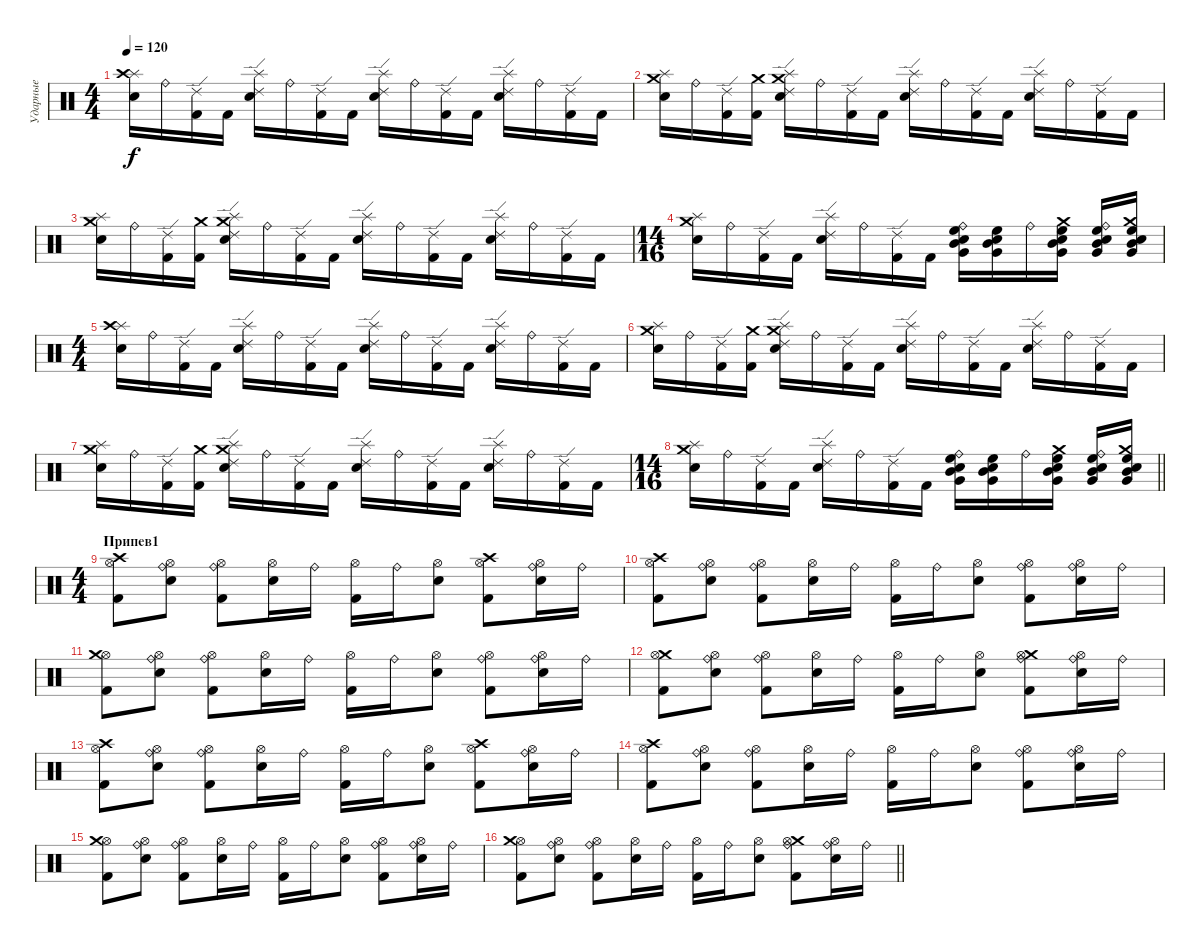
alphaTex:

\track ("Ударные" "Ударные") {instrument percussion}
\staff {score}
\articulation defaults
\ts (4 4)
\tempo 120
\clef neutral
\ks c
("Splash (hit)" "Crash high (hit)" "Electric Snare (hit)").16{dy f} "Ride (bell)".16 ("Ride (edge) 2" "Kick (hit) 2").16 "Kick (hit) 2".16 ("Splash (hit)" "Ride (edge) 2" "Electric Snare (hit)").16 "Ride (bell)".16 ("Ride (edge) 2" "Kick (hit) 2").16 "Kick (hit) 2".16 ("Splash (hit)" "Ride (edge) 2" "Electric Snare (hit)").16 "Ride (bell)".16 ("Ride (edge) 2" "Kick (hit) 2").16 "Kick (hit) 2".16 ("Splash (hit)" "Ride (edge) 2" "Electric Snare (hit)").16 "Ride (bell)".16 ("Ride (edge) 2" "Kick (hit) 2").16 "Kick (hit) 2".16 |
("Crash medium (hit)" "Splash (hit)" "Electric Snare (hit)").16 "Ride (bell)".16 ("Ride (edge) 2" "Kick (hit) 2").16 ("Crash medium (hit)" "Kick (hit) 2").16 ("Crash medium (hit)" "Splash (hit)" "Ride (edge) 2" "Electric Snare (hit)").16 "Ride (bell)".16 ("Ride (edge) 2" "Kick (hit) 2").16 "Kick (hit) 2".16 ("Splash (hit)" "Ride (edge) 2" "Electric Snare (hit)").16 "Ride (bell)".16 ("Ride (edge) 2" "Kick (hit) 2").16 "Kick (hit) 2".16 ("Splash (hit)" "Ride (edge) 2" "Electric Snare (hit)").16 "Ride (bell)".16 ("Ride (edge) 2" "Kick (hit) 2").16 "Kick (hit) 2".16 |
("Crash medium (hit)" "Splash (hit)" "Electric Snare (hit)").16 "Ride (bell)".16 ("Ride (edge) 2" "Kick (hit) 2").16 ("Crash medium (hit)" "Kick (hit) 2").16 ("Crash medium (hit)" "Splash (hit)" "Ride (edge) 2" "Electric Snare (hit)").16 "Ride (bell)".16 ("Ride (edge) 2" "Kick (hit) 2").16 "Kick (hit) 2".16 ("Splash (hit)" "Ride (edge) 2" "Electric Snare (hit)").16 "Ride (bell)".16 ("Ride (edge) 2" "Kick (hit) 2").16 "Kick (hit) 2".16 ("Splash (hit)" "Ride (edge) 2" "Electric Snare (hit)").16 "Ride (bell)".16 ("Ride (edge) 2" "Kick (hit) 2").16 "Kick (hit) 2".16 |
\ts (14 16)
("Splash (hit)" "Crash medium (hit)" "Electric Snare (hit)").16 "Ride (bell)".16 ("Ride (edge) 2" "Kick (hit) 2").16 "Kick (hit) 2".16 ("Splash (hit)" "Ride (edge) 2" "Electric Snare (hit)").16 "Ride (bell)".16 ("Ride (edge) 2" "Kick (hit) 2").16 "Kick (hit) 2".16 ("Ride (bell)" "High Floor Tom (hit)" "Mid Tom (hit)" "Very Low Tom (hit)" "Electric Snare (hit)").16 ("Electric Snare (hit)" "Very Low Tom (hit)" "Mid Tom (hit)" "High Floor Tom (hit)").16 "Ride (bell)".16 ("Crash medium (hit)" "Electric Snare (hit)" "Very Low Tom (hit)" "Mid Tom (hit)" "High Floor Tom (hit)").16 ("Ride (bell)" "Electric Snare (hit)" "Very Low Tom (hit)" "Mid Tom (hit)" "High Floor Tom (hit)").16 ("Crash medium (hit)" "Electric Snare (hit)" "Very Low Tom (hit)" "Mid Tom (hit)" "High Floor Tom (hit)").16 |
\ts (4 4)
("Splash (hit)" "Crash high (hit)" "Electric Snare (hit)").16 "Ride (bell)".16 ("Ride (edge) 2" "Kick (hit) 2").16 "Kick (hit) 2".16 ("Splash (hit)" "Ride (edge) 2" "Electric Snare (hit)").16 "Ride (bell)".16 ("Ride (edge) 2" "Kick (hit) 2").16 "Kick (hit) 2".16 ("Splash (hit)" "Ride (edge) 2" "Electric Snare (hit)").16 "Ride (bell)".16 ("Ride (edge) 2" "Kick (hit) 2").16 "Kick (hit) 2".16 ("Splash (hit)" "Ride (edge) 2" "Electric Snare (hit)").16 "Ride (bell)".16 ("Ride (edge) 2" "Kick (hit) 2").16 "Kick (hit) 2".16 |
("Crash medium (hit)" "Splash (hit)" "Electric Snare (hit)").16 "Ride (bell)".16 ("Ride (edge) 2" "Kick (hit) 2").16 ("Crash medium (hit)" "Kick (hit) 2").16 ("Crash medium (hit)" "Splash (hit)" "Ride (edge) 2" "Electric Snare (hit)").16 "Ride (bell)".16 ("Ride (edge) 2" "Kick (hit) 2").16 "Kick (hit) 2".16 ("Splash (hit)" "Ride (edge) 2" "Electric Snare (hit)").16 "Ride (bell)".16 ("Ride (edge) 2" "Kick (hit) 2").16 "Kick (hit) 2".16 ("Splash (hit)" "Ride (edge) 2" "Electric Snare (hit)").16 "Ride (bell)".16 ("Ride (edge) 2" "Kick (hit) 2").16 "Kick (hit) 2".16 |
("Crash medium (hit)" "Splash (hit)" "Electric Snare (hit)").16 "Ride (bell)".16 ("Ride (edge) 2" "Kick (hit) 2").16 ("Crash medium (hit)" "Kick (hit) 2").16 ("Crash medium (hit)" "Splash (hit)" "Ride (edge) 2" "Electric Snare (hit)").16 "Ride (bell)".16 ("Ride (edge) 2" "Kick (hit) 2").16 "Kick (hit) 2".16 ("Splash (hit)" "Ride (edge) 2" "Electric Snare (hit)").16 "Ride (bell)".16 ("Ride (edge) 2" "Kick (hit) 2").16 "Kick (hit) 2".16 ("Splash (hit)" "Ride (edge) 2" "Electric Snare (hit)").16 "Ride (bell)".16 ("Ride (edge) 2" "Kick (hit) 2").16 "Kick (hit) 2".16 |
\ts (14 16)
\barLineRight lightlight
("Splash (hit)" "Crash medium (hit)" "Electric Snare (hit)").16 "Ride (bell)".16 ("Ride (edge) 2" "Kick (hit) 2").16 "Kick (hit) 2".16 ("Splash (hit)" "Ride (edge) 2" "Electric Snare (hit)").16 "Ride (bell)".16 ("Ride (edge) 2" "Kick (hit) 2").16 "Kick (hit) 2".16 ("Ride (bell)" "High Floor Tom (hit)" "Mid Tom (hit)" "Very Low Tom (hit)" "Electric Snare (hit)").16 ("Electric Snare (hit)" "Very Low Tom (hit)" "Mid Tom (hit)" "High Floor Tom (hit)").16 "Ride (bell)".16 ("Crash medium (hit)" "Electric Snare (hit)" "Very Low Tom (hit)" "Mid Tom (hit)" "High Floor Tom (hit)").16 ("Ride (bell)" "Electric Snare (hit)" "Very Low Tom (hit)" "Mid Tom (hit)" "High Floor Tom (hit)").16 ("Crash medium (hit)" "Electric Snare (hit)" "Very Low Tom (hit)" "Mid Tom (hit)" "High Floor Tom (hit)").16 |
\ts (4 4)
\section ("" "Припев1")
("Crash high (hit)" "Hi-Hat (open)" "Kick (hit) 2").8 ("Ride (bell)" "Hi-Hat (open)" "Electric Snare (hit)").8 ("Ride (bell)" "Hi-Hat (open)" "Kick (hit) 2").8 ("Hi-Hat (open)" "Electric Snare (hit)").16 "Ride (bell)".16 ("Kick (hit) 2" "Hi-Hat (open)").16 "Ride (bell)".16 ("Electric Snare (hit)" "Hi-Hat (open)").8 ("Kick (hit) 2" "Crash high (hit)" "Hi-Hat (open)").8 ("Electric Snare (hit)" "Ride (bell)" "Hi-Hat (open)").16 "Ride (bell)".16 |
("Crash high (hit)" "Kick (hit) 2" "Hi-Hat (open)").8 ("Ride (bell)" "Electric Snare (hit)" "Hi-Hat (open)").8 ("Ride (bell)" "Kick (hit) 2" "Hi-Hat (open)").8 ("Electric Snare (hit)" "Hi-Hat (open)").16 "Ride (bell)".16 ("Kick (hit) 2" "Hi-Hat (open)").16 "Ride (bell)".16 ("Electric Snare (hit)" "Hi-Hat (open)").8 ("Kick (hit) 2" "Ride (bell)" "Hi-Hat (open)").8 ("Electric Snare (hit)" "Hi-Hat (open)" "Ride (bell)").16 "Ride (bell)".16 |
("Hi-Hat (open)" "Crash medium (hit)" "Kick (hit) 2").8 ("Hi-Hat (open)" "Electric Snare (hit)" "Ride (bell)").8 ("Hi-Hat (open)" "Kick (hit) 2" "Ride (bell)").8 ("Hi-Hat (open)" "Electric Snare (hit)").16 "Ride (bell)".16 ("Kick (hit) 2" "Hi-Hat (open)").16 "Ride (bell)".16 ("Electric Snare (hit)" "Hi-Hat (open)").8 ("Kick (hit) 2" "Hi-Hat (open)" "Ride (bell)").8 ("Electric Snare (hit)" "Hi-Hat (open)" "Ride (bell)").16 "Ride (bell)".16 |
("Crash medium (hit)" "Kick (hit) 2" "Hi-Hat (open)").8 ("Electric Snare (hit)" "Hi-Hat (open)" "Ride (bell)").8 ("Kick (hit) 2" "Hi-Hat (open)" "Ride (bell)").8 ("Electric Snare (hit)" "Hi-Hat (open)").16 "Ride (bell)".16 ("Kick (hit) 2" "Hi-Hat (open)").16 "Ride (bell)".16 ("Electric Snare (hit)" "Hi-Hat (open)").8 ("Kick (hit) 2" "Crash medium (hit)" "Hi-Hat (open)" "Ride (bell)").8 ("Electric Snare (hit)" "Hi-Hat (open)" "Ride (bell)").16 "Ride (bell)".16 |
("Crash high (hit)" "Hi-Hat (open)" "Kick (hit) 2").8 ("Ride (bell)" "Hi-Hat (open)" "Electric Snare (hit)").8 ("Ride (bell)" "Hi-Hat (open)" "Kick (hit) 2").8 ("Hi-Hat (open)" "Electric Snare (hit)").16 "Ride (bell)".16 ("Kick (hit) 2" "Hi-Hat (open)").16 "Ride (bell)".16 ("Electric Snare (hit)" "Hi-Hat (open)").8 ("Kick (hit) 2" "Crash high (hit)" "Hi-Hat (open)").8 ("Electric Snare (hit)" "Ride (bell)" "Hi-Hat (open)").16 "Ride (bell)".16 |
("Hi-Hat (open)" "Crash high (hit)" "Kick (hit) 2").8 ("Hi-Hat (open)" "Ride (bell)" "Electric Snare (hit)").8 ("Hi-Hat (open)" "Ride (bell)" "Kick (hit) 2").8 ("Hi-Hat (open)" "Electric Snare (hit)").16 "Ride (bell)".16 ("Kick (hit) 2" "Hi-Hat (open)").16 "Ride (bell)".16 ("Electric Snare (hit)" "Hi-Hat (open)").8 ("Kick (hit) 2" "Ride (bell)" "Hi-Hat (open)").8 ("Electric Snare (hit)" "Hi-Hat (open)" "Ride (bell)").16 "Ride (bell)".16 |
("Hi-Hat (open)" "Crash medium (hit)" "Kick (hit) 2").8 ("Hi-Hat (open)" "Electric Snare (hit)" "Ride (bell)").8 ("Hi-Hat (open)" "Kick (hit) 2" "Ride (bell)").8 ("Hi-Hat (open)" "Electric Snare (hit)").16 "Ride (bell)".16 ("Kick (hit) 2" "Hi-Hat (open)").16 "Ride (bell)".16 ("Electric Snare (hit)" "Hi-Hat (open)").8 ("Kick (hit) 2" "Hi-Hat (open)" "Ride (bell)").8 ("Electric Snare (hit)" "Hi-Hat (open)" "Ride (bell)").16 "Ride (bell)".16 |
\barLineRight lightlight
("Hi-Hat (open)" "Crash medium (hit)" "Kick (hit) 2").8 ("Hi-Hat (open)" "Electric Snare (hit)" "Ride (bell)").8 ("Hi-Hat (open)" "Kick (hit) 2" "Ride (bell)").8 ("Hi-Hat (open)" "Electric Snare (hit)").16 "Ride (bell)".16 ("Kick (hit) 2" "Hi-Hat (open)").16 "Ride (bell)".16 ("Electric Snare (hit)" "Hi-Hat (open)").8 ("Kick (hit) 2" "Crash medium (hit)" "Hi-Hat (open)" "Ride (bell)").8 ("Electric Snare (hit)" "Hi-Hat (open)" "Ride (bell)").16 "Ride (bell)".16
